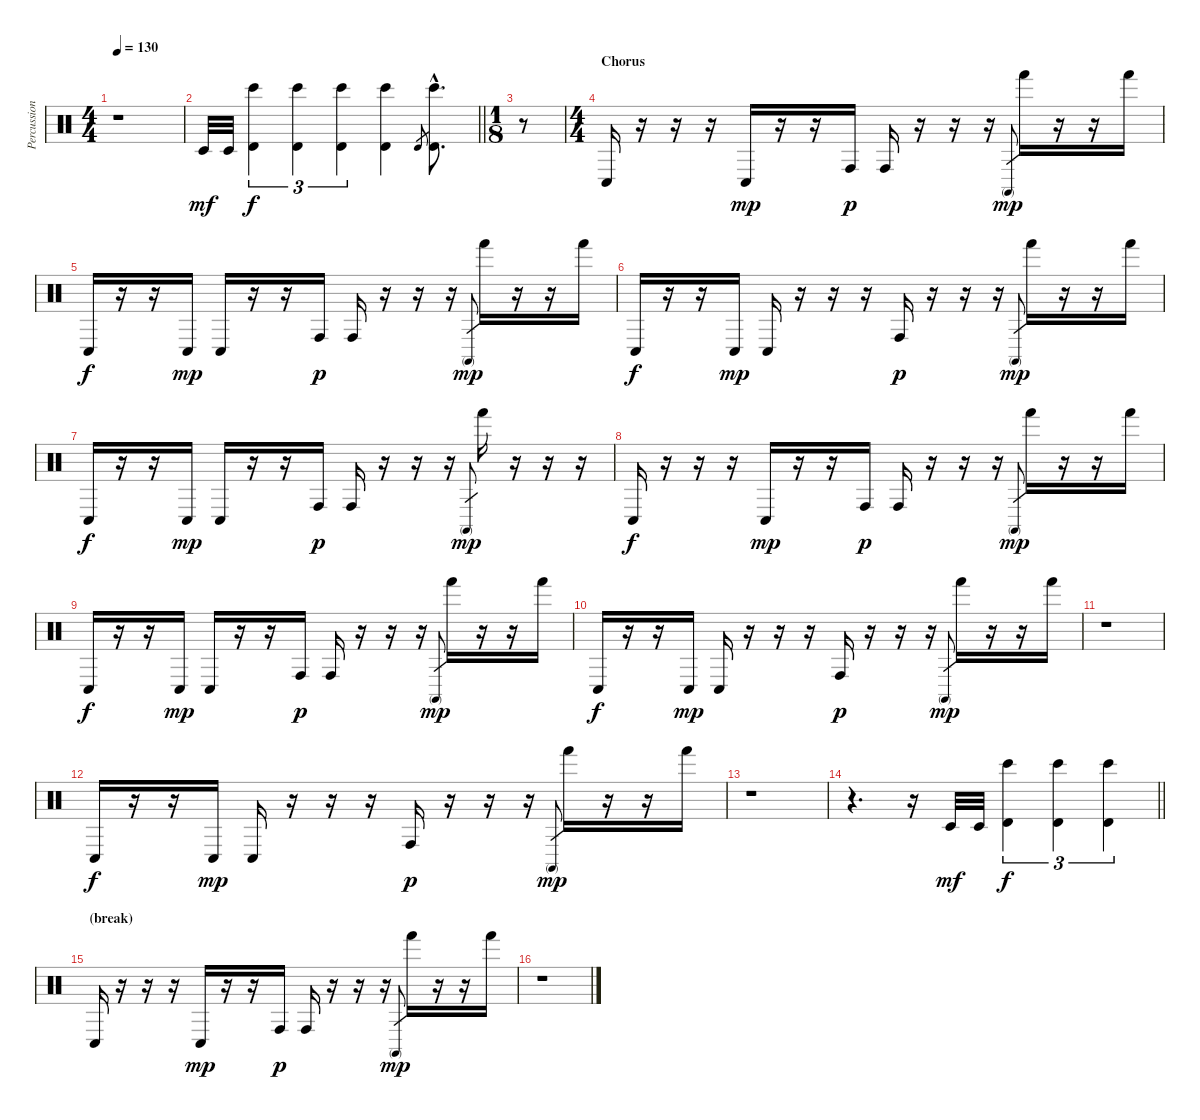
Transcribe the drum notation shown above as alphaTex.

\track ("Percussions" "Percussion") {instrument percussion}
\staff {score}
\articulation defaults
\ts (4 4)
\tempo 130
\clef neutral
\ks c
r.1{dy mp} |
\barLineRight lightlight "Timbale low (hit)".32{dy mf} "Timbale low (hit)".32
("Bongo High (hit)" "Timbale high (hit)").4{tu (3 2) dy f} ("Bongo High (hit)" "Timbale high (hit)").4{tu (3 2)} ("Bongo High (hit)" "Timbale high (hit)").4{tu (3 2)} ("Bongo High (hit)" "Timbale high (hit)").4 "Timbale high (hit)".8{gr} ("Bongo High (hit)"{hac} "Timbale high (hit)"{hac}).8{d} |
\ts (1 8)
r.8 |
\ts (4 4)
\section ("" "Chorus")
"Conga low (hit)".16 r.16 r.16 r.16 "Conga low (hit)".16{dy mp} r.16 r.16 "Conga high (hit)".16{dy p} "Conga high (hit)".16 r.16 r.16 r.16 "Conga high (mute)".8{gr dy mp} "Hand (hit)".16 r.16 r.16 "Hand (hit)".16 |
"Conga low (hit)".16{dy f} r.16 r.16 "Conga low (hit)".16{dy mp} "Conga low (hit)".16 r.16 r.16 "Conga high (hit)".16{dy p} "Conga high (hit)".16 r.16 r.16 r.16 "Conga high (mute)".8{gr dy mp} "Hand (hit)".16 r.16 r.16 "Hand (hit)".16 |
"Conga low (hit)".16{dy f} r.16 r.16 "Conga low (hit)".16{dy mp} "Conga low (hit)".16 r.16 r.16 r.16 "Conga high (hit)".16{dy p} r.16 r.16 r.16 "Conga high (mute)".8{gr dy mp} "Hand (hit)".16 r.16 r.16 "Hand (hit)".16 |
"Conga low (hit)".16{dy f} r.16 r.16 "Conga low (hit)".16{dy mp} "Conga low (hit)".16 r.16 r.16 "Conga high (hit)".16{dy p} "Conga high (hit)".16 r.16 r.16 r.16 "Conga high (mute)".8{gr dy mp} "Hand (hit)".16 r.16 r.16 r.16 |
"Conga low (hit)".16{dy f} r.16 r.16 r.16 "Conga low (hit)".16{dy mp} r.16 r.16 "Conga high (hit)".16{dy p} "Conga high (hit)".16 r.16 r.16 r.16 "Conga high (mute)".8{gr dy mp} "Hand (hit)".16 r.16 r.16 "Hand (hit)".16 |
"Conga low (hit)".16{dy f} r.16 r.16 "Conga low (hit)".16{dy mp} "Conga low (hit)".16 r.16 r.16 "Conga high (hit)".16{dy p} "Conga high (hit)".16 r.16 r.16 r.16 "Conga high (mute)".8{gr dy mp} "Hand (hit)".16 r.16 r.16 "Hand (hit)".16 |
"Conga low (hit)".16{dy f} r.16 r.16 "Conga low (hit)".16{dy mp} "Conga low (hit)".16 r.16 r.16 r.16 "Conga high (hit)".16{dy p} r.16 r.16 r.16 "Conga high (mute)".8{gr dy mp} "Hand (hit)".16 r.16 r.16 "Hand (hit)".16 |
r.1 |
"Conga low (hit)".16{dy f} r.16 r.16 "Conga low (hit)".16{dy mp} "Conga low (hit)".16 r.16 r.16 r.16 "Conga high (hit)".16{dy p} r.16 r.16 r.16 "Conga high (mute)".8{gr dy mp} "Hand (hit)".16 r.16 r.16 "Hand (hit)".16 |
r.1 |
\barLineRight lightlight
r.4{d} r.16 "Timbale low (hit)".32{dy mf} "Timbale low (hit)".32 ("Bongo High (hit)" "Timbale high (hit)").4{tu (3 2) dy f} ("Bongo High (hit)" "Timbale high (hit)").4{tu (3 2)} ("Bongo High (hit)" "Timbale high (hit)").4{tu (3 2)} |
\section ("" "(break)")
"Conga low (hit)".16 r.16 r.16 r.16 "Conga low (hit)".16{dy mp} r.16 r.16 "Conga high (hit)".16{dy p} "Conga high (hit)".16 r.16 r.16 r.16 "Conga high (mute)".8{gr dy mp} "Hand (hit)".16 r.16 r.16 "Hand (hit)".16 |
r.1
